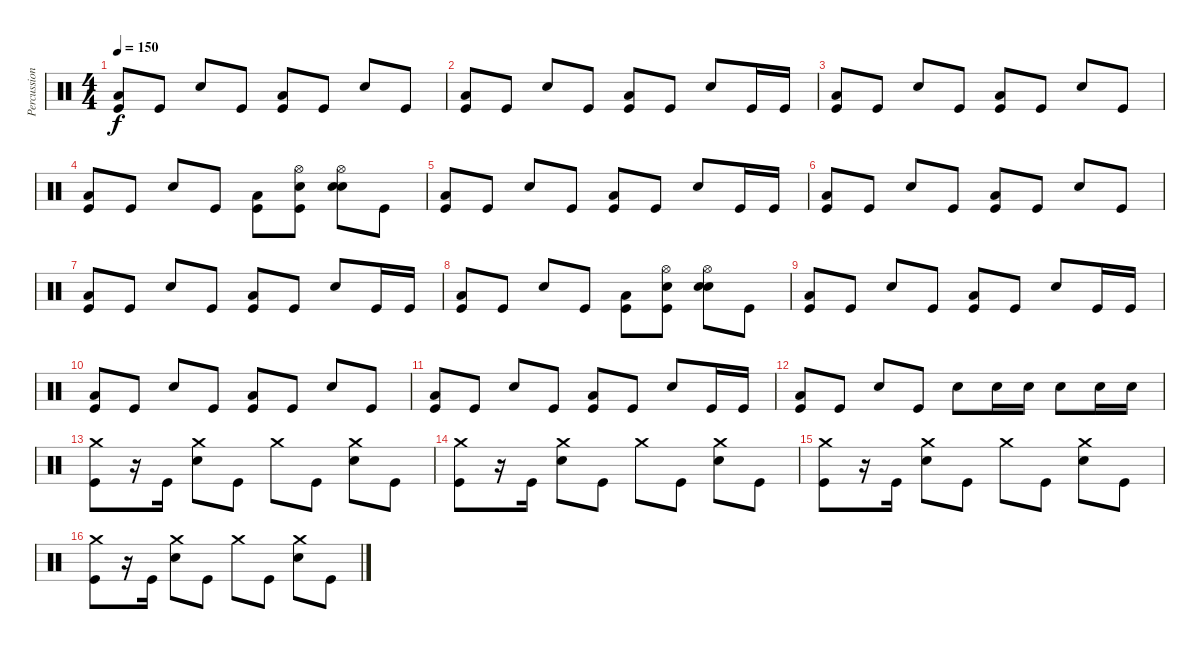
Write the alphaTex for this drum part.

\track ("Percussion" "Percussion") {instrument percussion}
\staff {score}
\articulation defaults
\ts (4 4)
\tempo 150
\clef neutral
\ks c
("Low Floor Tom (hit)" "Kick (hit)").8{dy f} "Kick (hit)".8 "Electric Snare (hit)".8 "Kick (hit)".8 ("Low Floor Tom (hit)" "Kick (hit)").8 "Kick (hit)".8 "Electric Snare (hit)".8 "Kick (hit)".8 |
("Low Floor Tom (hit)" "Kick (hit)").8 "Kick (hit)".8 "Electric Snare (hit)".8 "Kick (hit)".8 ("Low Floor Tom (hit)" "Kick (hit)").8 "Kick (hit)".8 "Electric Snare (hit)".8 "Kick (hit)".16 "Kick (hit)".16 |
("Low Floor Tom (hit)" "Kick (hit)").8 "Kick (hit)".8 "Electric Snare (hit)".8 "Kick (hit)".8 ("Low Floor Tom (hit)" "Kick (hit)").8 "Kick (hit)".8 "Electric Snare (hit)".8 "Kick (hit)".8 |
("Low Floor Tom (hit)" "Kick (hit)").8 "Kick (hit)".8 "Electric Snare (hit)".8 "Kick (hit)".8 ("Low Floor Tom (hit)" "Kick (hit)").8 ("Hand Clap (hit)" "Hi-Hat (open)" "Kick (hit)").8 ("Hand Clap (hit)" "Hi-Hat (open)" "Electric Snare (hit)").8 "Kick (hit)".8 |
("Low Floor Tom (hit)" "Kick (hit)").8 "Kick (hit)".8 "Electric Snare (hit)".8 "Kick (hit)".8 ("Low Floor Tom (hit)" "Kick (hit)").8 "Kick (hit)".8 "Electric Snare (hit)".8 "Kick (hit)".16 "Kick (hit)".16 |
("Low Floor Tom (hit)" "Kick (hit)").8 "Kick (hit)".8 "Electric Snare (hit)".8 "Kick (hit)".8 ("Low Floor Tom (hit)" "Kick (hit)").8 "Kick (hit)".8 "Electric Snare (hit)".8 "Kick (hit)".8 |
("Low Floor Tom (hit)" "Kick (hit)").8 "Kick (hit)".8 "Electric Snare (hit)".8 "Kick (hit)".8 ("Low Floor Tom (hit)" "Kick (hit)").8 "Kick (hit)".8 "Electric Snare (hit)".8 "Kick (hit)".16 "Kick (hit)".16 |
("Low Floor Tom (hit)" "Kick (hit)").8 "Kick (hit)".8 "Electric Snare (hit)".8 "Kick (hit)".8 ("Low Floor Tom (hit)" "Kick (hit)").8 ("Hand Clap (hit)" "Hi-Hat (open)" "Kick (hit)").8 ("Hand Clap (hit)" "Hi-Hat (open)" "Electric Snare (hit)").8 "Kick (hit)".8 |
("Low Floor Tom (hit)" "Kick (hit)").8 "Kick (hit)".8 "Electric Snare (hit)".8 "Kick (hit)".8 ("Low Floor Tom (hit)" "Kick (hit)").8 "Kick (hit)".8 "Electric Snare (hit)".8 "Kick (hit)".16 "Kick (hit)".16 |
("Low Floor Tom (hit)" "Kick (hit)").8 "Kick (hit)".8 "Electric Snare (hit)".8 "Kick (hit)".8 ("Low Floor Tom (hit)" "Kick (hit)").8 "Kick (hit)".8 "Electric Snare (hit)".8 "Kick (hit)".8 |
("Low Floor Tom (hit)" "Kick (hit)").8 "Kick (hit)".8 "Electric Snare (hit)".8 "Kick (hit)".8 ("Low Floor Tom (hit)" "Kick (hit)").8 "Kick (hit)".8 "Electric Snare (hit)".8 "Kick (hit)".16 "Kick (hit)".16 |
("Low Floor Tom (hit)" "Kick (hit)").8 "Kick (hit)".8 "Electric Snare (hit)".8 "Kick (hit)".8 "Electric Snare (hit)".8 "Electric Snare (hit)".16 "Electric Snare (hit)".16 "Electric Snare (hit)".8 "Electric Snare (hit)".16 "Electric Snare (hit)".16 |
("Crash medium (hit)" "Kick (hit)").8 r.16 "Kick (hit)".16 ("Crash medium (hit)" "Electric Snare (hit)").8 "Kick (hit)".8 "Crash medium (hit)".8 "Kick (hit)".8 ("Crash medium (hit)" "Electric Snare (hit)").8 "Kick (hit)".8 |
("Crash medium (hit)" "Kick (hit)").8 r.16 "Kick (hit)".16 ("Crash medium (hit)" "Electric Snare (hit)").8 "Kick (hit)".8 "Crash medium (hit)".8 "Kick (hit)".8 ("Crash medium (hit)" "Electric Snare (hit)").8 "Kick (hit)".8 |
("Crash medium (hit)" "Kick (hit)").8 r.16 "Kick (hit)".16 ("Crash medium (hit)" "Electric Snare (hit)").8 "Kick (hit)".8 "Crash medium (hit)".8 "Kick (hit)".8 ("Crash medium (hit)" "Electric Snare (hit)").8 "Kick (hit)".8 |
("Crash medium (hit)" "Kick (hit)").8 r.16 "Kick (hit)".16 ("Crash medium (hit)" "Electric Snare (hit)").8 "Kick (hit)".8 "Crash medium (hit)".8 "Kick (hit)".8 ("Crash medium (hit)" "Electric Snare (hit)").8 "Kick (hit)".8
